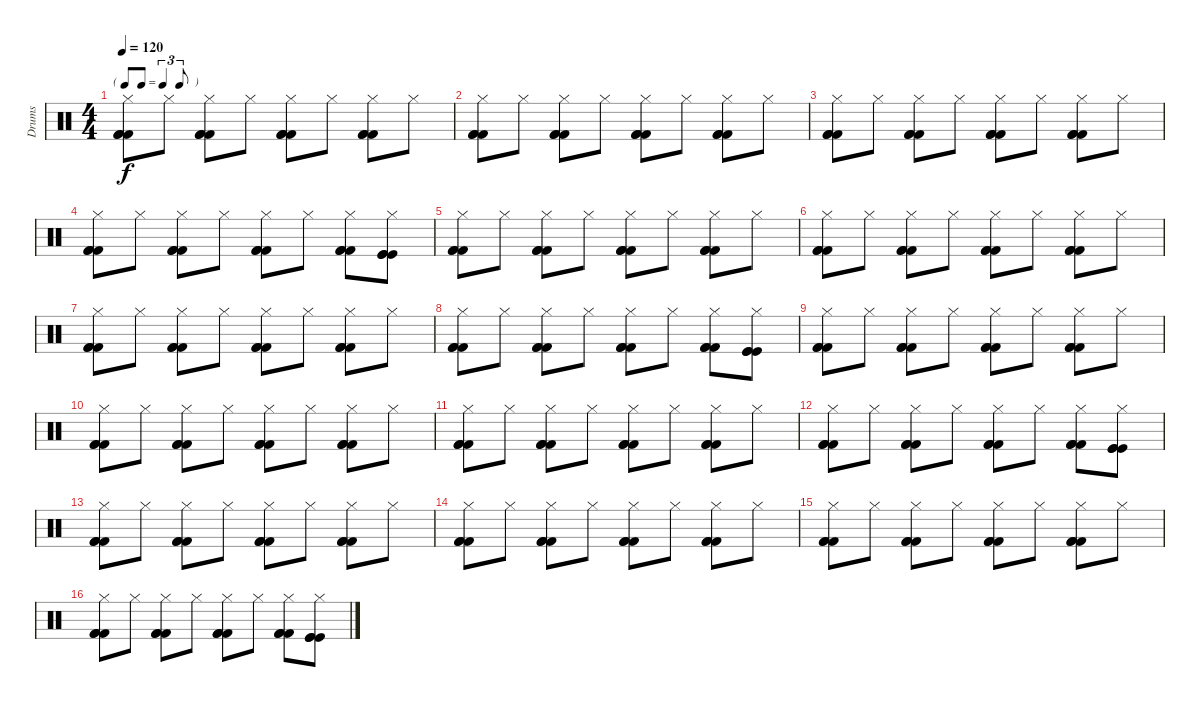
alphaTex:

\track ("Drums" "Drums") {instrument percussion}
\staff {score}
\articulation defaults
\ts (4 4)
\tf triplet8th
\tempo 120
\clef neutral
\ks c
("Hi-Hat (closed)" "Kick (hit) 2" "Kick (hit) 2" "Kick (hit) 2").8{dy f} "Hi-Hat (closed)".8 ("Hi-Hat (closed)" "Kick (hit) 2" "Kick (hit) 2" "Kick (hit) 2").8 "Hi-Hat (closed)".8 ("Hi-Hat (closed)" "Kick (hit) 2" "Kick (hit) 2" "Kick (hit) 2").8 "Hi-Hat (closed)".8 ("Hi-Hat (closed)" "Kick (hit) 2" "Kick (hit) 2" "Kick (hit) 2").8 "Hi-Hat (closed)".8 |
("Hi-Hat (closed)" "Kick (hit) 2" "Kick (hit) 2" "Kick (hit) 2").8 "Hi-Hat (closed)".8 ("Hi-Hat (closed)" "Kick (hit) 2" "Kick (hit) 2" "Kick (hit) 2").8 "Hi-Hat (closed)".8 ("Hi-Hat (closed)" "Kick (hit) 2" "Kick (hit) 2" "Kick (hit) 2").8 "Hi-Hat (closed)".8 ("Hi-Hat (closed)" "Kick (hit) 2" "Kick (hit) 2" "Kick (hit) 2").8 "Hi-Hat (closed)".8 |
("Hi-Hat (closed)" "Kick (hit) 2" "Kick (hit) 2" "Kick (hit) 2").8 "Hi-Hat (closed)".8 ("Hi-Hat (closed)" "Kick (hit) 2" "Kick (hit) 2" "Kick (hit) 2").8 "Hi-Hat (closed)".8 ("Hi-Hat (closed)" "Kick (hit) 2" "Kick (hit) 2" "Kick (hit) 2").8 "Hi-Hat (closed)".8 ("Hi-Hat (closed)" "Kick (hit) 2" "Kick (hit) 2" "Kick (hit) 2").8 "Hi-Hat (closed)".8 |
("Hi-Hat (closed)" "Kick (hit) 2" "Kick (hit) 2" "Kick (hit) 2").8 "Hi-Hat (closed)".8 ("Hi-Hat (closed)" "Kick (hit) 2" "Kick (hit) 2" "Kick (hit) 2").8 "Hi-Hat (closed)".8 ("Hi-Hat (closed)" "Kick (hit) 2" "Kick (hit) 2" "Kick (hit) 2").8 "Hi-Hat (closed)".8 ("Hi-Hat (closed)" "Kick (hit) 2" "Kick (hit) 2" "Kick (hit) 2").8 ("Hi-Hat (closed)" "Kick (hit)" "Kick (hit)" "Kick (hit)").8 |
("Hi-Hat (closed)" "Kick (hit) 2" "Kick (hit) 2" "Kick (hit) 2").8 "Hi-Hat (closed)".8 ("Hi-Hat (closed)" "Kick (hit) 2" "Kick (hit) 2" "Kick (hit) 2").8 "Hi-Hat (closed)".8 ("Hi-Hat (closed)" "Kick (hit) 2" "Kick (hit) 2" "Kick (hit) 2").8 "Hi-Hat (closed)".8 ("Hi-Hat (closed)" "Kick (hit) 2" "Kick (hit) 2" "Kick (hit) 2").8 "Hi-Hat (closed)".8 |
("Hi-Hat (closed)" "Kick (hit) 2" "Kick (hit) 2" "Kick (hit) 2").8 "Hi-Hat (closed)".8 ("Hi-Hat (closed)" "Kick (hit) 2" "Kick (hit) 2" "Kick (hit) 2").8 "Hi-Hat (closed)".8 ("Hi-Hat (closed)" "Kick (hit) 2" "Kick (hit) 2" "Kick (hit) 2").8 "Hi-Hat (closed)".8 ("Hi-Hat (closed)" "Kick (hit) 2" "Kick (hit) 2" "Kick (hit) 2").8 "Hi-Hat (closed)".8 |
("Hi-Hat (closed)" "Kick (hit) 2" "Kick (hit) 2" "Kick (hit) 2").8 "Hi-Hat (closed)".8 ("Hi-Hat (closed)" "Kick (hit) 2" "Kick (hit) 2" "Kick (hit) 2").8 "Hi-Hat (closed)".8 ("Hi-Hat (closed)" "Kick (hit) 2" "Kick (hit) 2" "Kick (hit) 2").8 "Hi-Hat (closed)".8 ("Hi-Hat (closed)" "Kick (hit) 2" "Kick (hit) 2" "Kick (hit) 2").8 "Hi-Hat (closed)".8 |
("Hi-Hat (closed)" "Kick (hit) 2" "Kick (hit) 2" "Kick (hit) 2").8 "Hi-Hat (closed)".8 ("Hi-Hat (closed)" "Kick (hit) 2" "Kick (hit) 2" "Kick (hit) 2").8 "Hi-Hat (closed)".8 ("Hi-Hat (closed)" "Kick (hit) 2" "Kick (hit) 2" "Kick (hit) 2").8 "Hi-Hat (closed)".8 ("Hi-Hat (closed)" "Kick (hit) 2" "Kick (hit) 2" "Kick (hit) 2").8 ("Hi-Hat (closed)" "Kick (hit)" "Kick (hit)" "Kick (hit)").8 |
("Hi-Hat (closed)" "Kick (hit) 2" "Kick (hit) 2" "Kick (hit) 2").8 "Hi-Hat (closed)".8 ("Hi-Hat (closed)" "Kick (hit) 2" "Kick (hit) 2" "Kick (hit) 2").8 "Hi-Hat (closed)".8 ("Hi-Hat (closed)" "Kick (hit) 2" "Kick (hit) 2" "Kick (hit) 2").8 "Hi-Hat (closed)".8 ("Hi-Hat (closed)" "Kick (hit) 2" "Kick (hit) 2" "Kick (hit) 2").8 "Hi-Hat (closed)".8 |
("Hi-Hat (closed)" "Kick (hit) 2" "Kick (hit) 2" "Kick (hit) 2").8 "Hi-Hat (closed)".8 ("Hi-Hat (closed)" "Kick (hit) 2" "Kick (hit) 2" "Kick (hit) 2").8 "Hi-Hat (closed)".8 ("Hi-Hat (closed)" "Kick (hit) 2" "Kick (hit) 2" "Kick (hit) 2").8 "Hi-Hat (closed)".8 ("Hi-Hat (closed)" "Kick (hit) 2" "Kick (hit) 2" "Kick (hit) 2").8 "Hi-Hat (closed)".8 |
("Hi-Hat (closed)" "Kick (hit) 2" "Kick (hit) 2" "Kick (hit) 2").8 "Hi-Hat (closed)".8 ("Hi-Hat (closed)" "Kick (hit) 2" "Kick (hit) 2" "Kick (hit) 2").8 "Hi-Hat (closed)".8 ("Hi-Hat (closed)" "Kick (hit) 2" "Kick (hit) 2" "Kick (hit) 2").8 "Hi-Hat (closed)".8 ("Hi-Hat (closed)" "Kick (hit) 2" "Kick (hit) 2" "Kick (hit) 2").8 "Hi-Hat (closed)".8 |
("Hi-Hat (closed)" "Kick (hit) 2" "Kick (hit) 2" "Kick (hit) 2").8 "Hi-Hat (closed)".8 ("Hi-Hat (closed)" "Kick (hit) 2" "Kick (hit) 2" "Kick (hit) 2").8 "Hi-Hat (closed)".8 ("Hi-Hat (closed)" "Kick (hit) 2" "Kick (hit) 2" "Kick (hit) 2").8 "Hi-Hat (closed)".8 ("Hi-Hat (closed)" "Kick (hit) 2" "Kick (hit) 2" "Kick (hit) 2").8 ("Hi-Hat (closed)" "Kick (hit)" "Kick (hit)" "Kick (hit)").8 |
("Hi-Hat (closed)" "Kick (hit) 2" "Kick (hit) 2" "Kick (hit) 2").8 "Hi-Hat (closed)".8 ("Hi-Hat (closed)" "Kick (hit) 2" "Kick (hit) 2" "Kick (hit) 2").8 "Hi-Hat (closed)".8 ("Hi-Hat (closed)" "Kick (hit) 2" "Kick (hit) 2" "Kick (hit) 2").8 "Hi-Hat (closed)".8 ("Hi-Hat (closed)" "Kick (hit) 2" "Kick (hit) 2" "Kick (hit) 2").8 "Hi-Hat (closed)".8 |
("Hi-Hat (closed)" "Kick (hit) 2" "Kick (hit) 2" "Kick (hit) 2").8 "Hi-Hat (closed)".8 ("Hi-Hat (closed)" "Kick (hit) 2" "Kick (hit) 2" "Kick (hit) 2").8 "Hi-Hat (closed)".8 ("Hi-Hat (closed)" "Kick (hit) 2" "Kick (hit) 2" "Kick (hit) 2").8 "Hi-Hat (closed)".8 ("Hi-Hat (closed)" "Kick (hit) 2" "Kick (hit) 2" "Kick (hit) 2").8 "Hi-Hat (closed)".8 |
("Hi-Hat (closed)" "Kick (hit) 2" "Kick (hit) 2" "Kick (hit) 2").8 "Hi-Hat (closed)".8 ("Hi-Hat (closed)" "Kick (hit) 2" "Kick (hit) 2" "Kick (hit) 2").8 "Hi-Hat (closed)".8 ("Hi-Hat (closed)" "Kick (hit) 2" "Kick (hit) 2" "Kick (hit) 2").8 "Hi-Hat (closed)".8 ("Hi-Hat (closed)" "Kick (hit) 2" "Kick (hit) 2" "Kick (hit) 2").8 "Hi-Hat (closed)".8 |
("Hi-Hat (closed)" "Kick (hit) 2" "Kick (hit) 2" "Kick (hit) 2").8 "Hi-Hat (closed)".8 ("Hi-Hat (closed)" "Kick (hit) 2" "Kick (hit) 2" "Kick (hit) 2").8 "Hi-Hat (closed)".8 ("Hi-Hat (closed)" "Kick (hit) 2" "Kick (hit) 2" "Kick (hit) 2").8 "Hi-Hat (closed)".8 ("Hi-Hat (closed)" "Kick (hit) 2" "Kick (hit) 2" "Kick (hit) 2").8 ("Hi-Hat (closed)" "Kick (hit)" "Kick (hit)" "Kick (hit)").8
